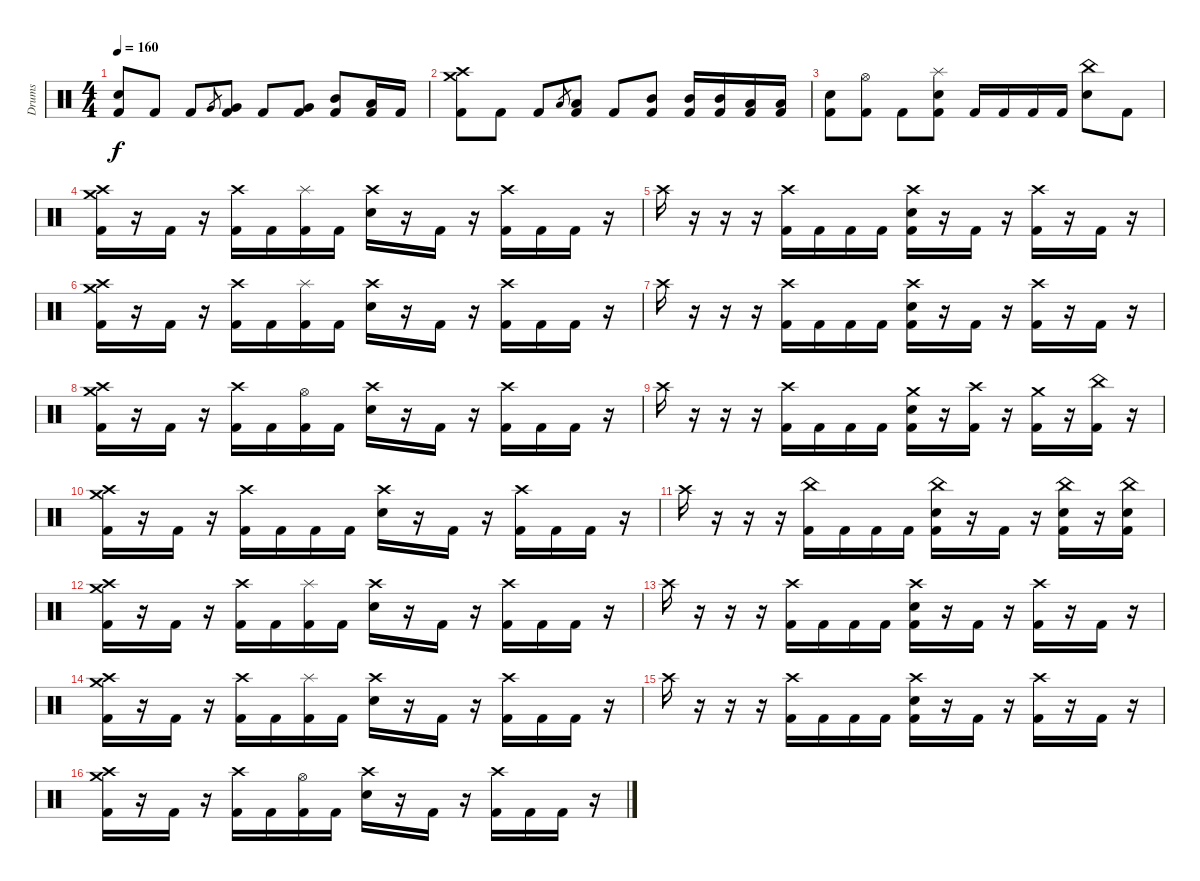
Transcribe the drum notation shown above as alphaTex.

\track ("Drums" "Drums") {instrument percussion}
\staff {score}
\articulation defaults
\ts (4 4)
\tempo 160
\clef neutral
\ks c
("Electric Snare (hit)" "Kick (hit) 2").8{dy f} "Kick (hit) 2".8 "Kick (hit) 2".8 "Very Low Tom (hit)".8{gr} ("Very Low Tom (hit)" "Kick (hit) 2").8 "Kick (hit) 2".8 ("Very Low Tom (hit)" "Kick (hit) 2").8 ("Mid Tom (hit)" "Kick (hit) 2").8 ("Low Tom (hit)" "Kick (hit) 2").16 "Kick (hit) 2".16 |
("Crash high (hit)" "Crash medium (hit)" "Kick (hit) 2").8 "Kick (hit) 2".8 "Kick (hit) 2".8 "Low Tom (hit)".8{gr} ("Low Tom (hit)" "Kick (hit) 2").8 "Kick (hit) 2".8 ("Mid Tom (hit)" "Kick (hit) 2").8 ("Mid Tom (hit)" "Kick (hit) 2").16 ("Mid Tom (hit)" "Kick (hit) 2").16 ("Low Tom (hit)" "Kick (hit) 2").16 ("Low Tom (hit)" "Kick (hit) 2").16 |
("Electric Snare (hit)" "Kick (hit) 2").8 ("Hi-Hat (open)" "Kick (hit) 2").8 "Kick (hit) 2".8 ("Splash (hit)" "Electric Snare (hit)" "Kick (hit) 2").8 "Kick (hit) 2".16 "Kick (hit) 2".16 "Kick (hit) 2".16 "Kick (hit) 2".16 ("China (hit)" "Electric Snare (hit)").8 "Kick (hit) 2".8 |
("Crash high (hit)" "Crash medium (hit)" "Kick (hit) 2").16 r.16 "Kick (hit) 2".16 r.16 ("Crash high (hit)" "Kick (hit) 2").16 "Kick (hit) 2".16 ("Splash (hit)" "Kick (hit) 2").16 "Kick (hit) 2".16 ("Crash high (hit)" "Electric Snare (hit)").16 r.16 "Kick (hit) 2".16 r.16 ("Crash high (hit)" "Kick (hit) 2").16 "Kick (hit) 2".16 "Kick (hit) 2".16 r.16 |
"Crash high (hit)".16 r.16 r.16 r.16 ("Crash high (hit)" "Kick (hit) 2").16 "Kick (hit) 2".16 "Kick (hit) 2".16 "Kick (hit) 2".16 ("Crash high (hit)" "Electric Snare (hit)" "Kick (hit) 2").16 r.16 "Kick (hit) 2".16 r.16 ("Crash high (hit)" "Kick (hit) 2").16 r.16 "Kick (hit) 2".16 r.16 |
("Crash high (hit)" "Crash medium (hit)" "Kick (hit) 2").16 r.16 "Kick (hit) 2".16 r.16 ("Crash high (hit)" "Kick (hit) 2").16 "Kick (hit) 2".16 ("Splash (hit)" "Kick (hit) 2").16 "Kick (hit) 2".16 ("Crash high (hit)" "Electric Snare (hit)").16 r.16 "Kick (hit) 2".16 r.16 ("Crash high (hit)" "Kick (hit) 2").16 "Kick (hit) 2".16 "Kick (hit) 2".16 r.16 |
"Crash high (hit)".16 r.16 r.16 r.16 ("Crash high (hit)" "Kick (hit) 2").16 "Kick (hit) 2".16 "Kick (hit) 2".16 "Kick (hit) 2".16 ("Crash high (hit)" "Electric Snare (hit)" "Kick (hit) 2").16 r.16 "Kick (hit) 2".16 r.16 ("Crash high (hit)" "Kick (hit) 2").16 r.16 "Kick (hit) 2".16 r.16 |
("Crash high (hit)" "Crash medium (hit)" "Kick (hit) 2").16 r.16 "Kick (hit) 2".16 r.16 ("Crash high (hit)" "Kick (hit) 2").16 "Kick (hit) 2".16 ("Hi-Hat (open)" "Kick (hit) 2").16 "Kick (hit) 2".16 ("Crash high (hit)" "Electric Snare (hit)").16 r.16 "Kick (hit) 2".16 r.16 ("Crash high (hit)" "Kick (hit) 2").16 "Kick (hit) 2".16 "Kick (hit) 2".16 r.16 |
"Crash high (hit)".16 r.16 r.16 r.16 ("Crash high (hit)" "Kick (hit) 2").16 "Kick (hit) 2".16 "Kick (hit) 2".16 "Kick (hit) 2".16 ("Crash medium (hit)" "Electric Snare (hit)" "Kick (hit) 2").16 r.16 ("Crash high (hit)" "Kick (hit) 2").16 r.16 ("Crash medium (hit)" "Kick (hit) 2").16 r.16 ("China (hit)" "Kick (hit) 2").16 r.16 |
("Crash high (hit)" "Crash medium (hit)" "Kick (hit) 2").16 r.16 "Kick (hit) 2".16 r.16 ("Crash high (hit)" "Kick (hit) 2").16 "Kick (hit) 2".16 "Kick (hit) 2".16 "Kick (hit) 2".16 ("Crash high (hit)" "Electric Snare (hit)").16 r.16 "Kick (hit) 2".16 r.16 ("Crash high (hit)" "Kick (hit) 2").16 "Kick (hit) 2".16 "Kick (hit) 2".16 r.16 |
"Crash high (hit)".16 r.16 r.16 r.16 ("China (hit)" "Kick (hit) 2").16 "Kick (hit) 2".16 "Kick (hit) 2".16 "Kick (hit) 2".16 ("China (hit)" "Electric Snare (hit)" "Kick (hit) 2").16 r.16 "Kick (hit) 2".16 r.16 ("China (hit)" "Electric Snare (hit)" "Kick (hit) 2").16 r.16 ("China (hit)" "Electric Snare (hit)" "Kick (hit) 2").16 |
("Crash high (hit)" "Crash medium (hit)" "Kick (hit) 2").16 r.16 "Kick (hit) 2".16 r.16 ("Crash high (hit)" "Kick (hit) 2").16 "Kick (hit) 2".16 ("Splash (hit)" "Kick (hit) 2").16 "Kick (hit) 2".16 ("Crash high (hit)" "Electric Snare (hit)").16 r.16 "Kick (hit) 2".16 r.16 ("Crash high (hit)" "Kick (hit) 2").16 "Kick (hit) 2".16 "Kick (hit) 2".16 r.16 |
"Crash high (hit)".16 r.16 r.16 r.16 ("Crash high (hit)" "Kick (hit) 2").16 "Kick (hit) 2".16 "Kick (hit) 2".16 "Kick (hit) 2".16 ("Crash high (hit)" "Electric Snare (hit)" "Kick (hit) 2").16 r.16 "Kick (hit) 2".16 r.16 ("Crash high (hit)" "Kick (hit) 2").16 r.16 "Kick (hit) 2".16 r.16 |
("Crash high (hit)" "Crash medium (hit)" "Kick (hit) 2").16 r.16 "Kick (hit) 2".16 r.16 ("Crash high (hit)" "Kick (hit) 2").16 "Kick (hit) 2".16 ("Splash (hit)" "Kick (hit) 2").16 "Kick (hit) 2".16 ("Crash high (hit)" "Electric Snare (hit)").16 r.16 "Kick (hit) 2".16 r.16 ("Crash high (hit)" "Kick (hit) 2").16 "Kick (hit) 2".16 "Kick (hit) 2".16 r.16 |
"Crash high (hit)".16 r.16 r.16 r.16 ("Crash high (hit)" "Kick (hit) 2").16 "Kick (hit) 2".16 "Kick (hit) 2".16 "Kick (hit) 2".16 ("Crash high (hit)" "Electric Snare (hit)" "Kick (hit) 2").16 r.16 "Kick (hit) 2".16 r.16 ("Crash high (hit)" "Kick (hit) 2").16 r.16 "Kick (hit) 2".16 r.16 |
("Crash high (hit)" "Crash medium (hit)" "Kick (hit) 2").16 r.16 "Kick (hit) 2".16 r.16 ("Crash high (hit)" "Kick (hit) 2").16 "Kick (hit) 2".16 ("Hi-Hat (open)" "Kick (hit) 2").16 "Kick (hit) 2".16 ("Crash high (hit)" "Electric Snare (hit)").16 r.16 "Kick (hit) 2".16 r.16 ("Crash high (hit)" "Kick (hit) 2").16 "Kick (hit) 2".16 "Kick (hit) 2".16 r.16
